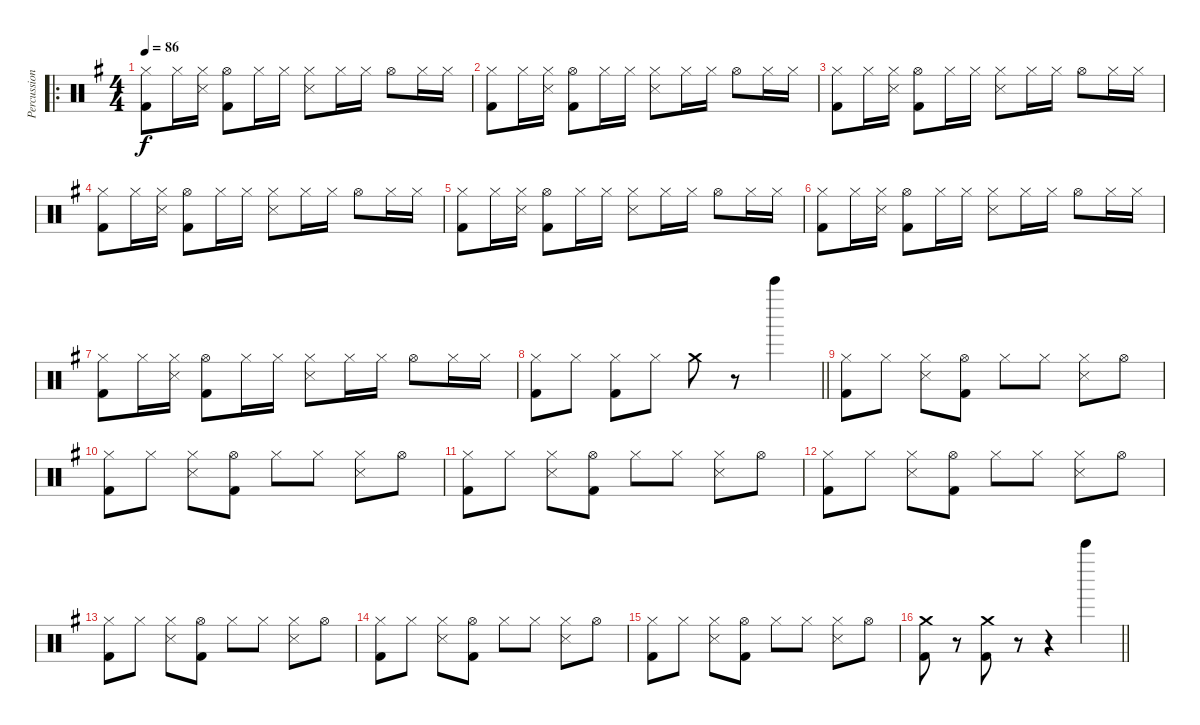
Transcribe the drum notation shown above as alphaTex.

\track ("Percussion" "Percussion") {instrument percussion}
\staff {score}
\articulation defaults
\ro
\ts (4 4)
\tempo 86
\clef neutral
\ks g
("Hi-Hat (closed)" "Kick (hit) 2").8{dy f} "Hi-Hat (closed)".16 ("Hi-Hat (closed)" "Snare (side stick) 3").16 ("Hi-Hat (open)" "Kick (hit) 2").8 "Hi-Hat (closed)".16 "Hi-Hat (closed)".16 ("Hi-Hat (closed)" "Snare (side stick) 3").8 "Hi-Hat (closed)".16 "Hi-Hat (closed)".16 "Hi-Hat (open)".8 "Hi-Hat (closed)".16 "Hi-Hat (closed)".16 |
("Hi-Hat (closed)" "Kick (hit) 2").8 "Hi-Hat (closed)".16 ("Hi-Hat (closed)" "Snare (side stick) 3").16 ("Hi-Hat (open)" "Kick (hit) 2").8 "Hi-Hat (closed)".16 "Hi-Hat (closed)".16 ("Hi-Hat (closed)" "Snare (side stick) 3").8 "Hi-Hat (closed)".16 "Hi-Hat (closed)".16 "Hi-Hat (open)".8 "Hi-Hat (closed)".16 "Hi-Hat (closed)".16 |
("Hi-Hat (closed)" "Kick (hit) 2").8 "Hi-Hat (closed)".16 ("Hi-Hat (closed)" "Snare (side stick) 3").16 ("Hi-Hat (open)" "Kick (hit) 2").8 "Hi-Hat (closed)".16 "Hi-Hat (closed)".16 ("Hi-Hat (closed)" "Snare (side stick) 3").8 "Hi-Hat (closed)".16 "Hi-Hat (closed)".16 "Hi-Hat (open)".8 "Hi-Hat (closed)".16 "Hi-Hat (closed)".16 |
("Hi-Hat (closed)" "Kick (hit) 2").8 "Hi-Hat (closed)".16 ("Hi-Hat (closed)" "Snare (side stick) 3").16 ("Hi-Hat (open)" "Kick (hit) 2").8 "Hi-Hat (closed)".16 "Hi-Hat (closed)".16 ("Hi-Hat (closed)" "Snare (side stick) 3").8 "Hi-Hat (closed)".16 "Hi-Hat (closed)".16 "Hi-Hat (open)".8 "Hi-Hat (closed)".16 "Hi-Hat (closed)".16 |
("Hi-Hat (closed)" "Kick (hit) 2").8 "Hi-Hat (closed)".16 ("Hi-Hat (closed)" "Snare (side stick) 3").16 ("Hi-Hat (open)" "Kick (hit) 2").8 "Hi-Hat (closed)".16 "Hi-Hat (closed)".16 ("Hi-Hat (closed)" "Snare (side stick) 3").8 "Hi-Hat (closed)".16 "Hi-Hat (closed)".16 "Hi-Hat (open)".8 "Hi-Hat (closed)".16 "Hi-Hat (closed)".16 |
("Hi-Hat (closed)" "Kick (hit) 2").8 "Hi-Hat (closed)".16 ("Hi-Hat (closed)" "Snare (side stick) 3").16 ("Hi-Hat (open)" "Kick (hit) 2").8 "Hi-Hat (closed)".16 "Hi-Hat (closed)".16 ("Hi-Hat (closed)" "Snare (side stick) 3").8 "Hi-Hat (closed)".16 "Hi-Hat (closed)".16 "Hi-Hat (open)".8 "Hi-Hat (closed)".16 "Hi-Hat (closed)".16 |
("Hi-Hat (closed)" "Kick (hit) 2").8 "Hi-Hat (closed)".16 ("Hi-Hat (closed)" "Snare (side stick) 3").16 ("Hi-Hat (open)" "Kick (hit) 2").8 "Hi-Hat (closed)".16 "Hi-Hat (closed)".16 ("Hi-Hat (closed)" "Snare (side stick) 3").8 "Hi-Hat (closed)".16 "Hi-Hat (closed)".16 "Hi-Hat (open)".8 "Hi-Hat (closed)".16 "Hi-Hat (closed)".16 |
\barLineRight lightlight
("Hi-Hat (closed)" "Kick (hit) 2").8 "Hi-Hat (closed)".8 ("Hi-Hat (closed)" "Kick (hit) 2").8 "Hi-Hat (closed)".8 "Crash medium (hit)".8 r.8 "Bell Tree (hit)".4 |
("Hi-Hat (closed)" "Kick (hit) 2").8 "Hi-Hat (closed)".8 ("Hi-Hat (closed)" "Snare (side stick) 3").8 ("Hi-Hat (open)" "Kick (hit) 2").8 "Hi-Hat (closed)".8 "Hi-Hat (closed)".8 ("Hi-Hat (closed)" "Snare (side stick) 3").8 "Hi-Hat (open)".8 |
("Hi-Hat (closed)" "Kick (hit) 2").8 "Hi-Hat (closed)".8 ("Hi-Hat (closed)" "Snare (side stick) 3").8 ("Hi-Hat (open)" "Kick (hit) 2").8 "Hi-Hat (closed)".8 "Hi-Hat (closed)".8 ("Hi-Hat (closed)" "Snare (side stick) 3").8 "Hi-Hat (open)".8 |
("Hi-Hat (closed)" "Kick (hit) 2").8 "Hi-Hat (closed)".8 ("Hi-Hat (closed)" "Snare (side stick) 3").8 ("Hi-Hat (open)" "Kick (hit) 2").8 "Hi-Hat (closed)".8 "Hi-Hat (closed)".8 ("Hi-Hat (closed)" "Snare (side stick) 3").8 "Hi-Hat (open)".8 |
("Hi-Hat (closed)" "Kick (hit) 2").8 "Hi-Hat (closed)".8 ("Hi-Hat (closed)" "Snare (side stick) 3").8 ("Hi-Hat (open)" "Kick (hit) 2").8 "Hi-Hat (closed)".8 "Hi-Hat (closed)".8 ("Hi-Hat (closed)" "Snare (side stick) 3").8 "Hi-Hat (open)".8 |
("Hi-Hat (closed)" "Kick (hit) 2").8 "Hi-Hat (closed)".8 ("Hi-Hat (closed)" "Snare (side stick) 3").8 ("Hi-Hat (open)" "Kick (hit) 2").8 "Hi-Hat (closed)".8 "Hi-Hat (closed)".8 ("Hi-Hat (closed)" "Snare (side stick) 3").8 "Hi-Hat (open)".8 |
("Hi-Hat (closed)" "Kick (hit) 2").8 "Hi-Hat (closed)".8 ("Hi-Hat (closed)" "Snare (side stick) 3").8 ("Hi-Hat (open)" "Kick (hit) 2").8 "Hi-Hat (closed)".8 "Hi-Hat (closed)".8 ("Hi-Hat (closed)" "Snare (side stick) 3").8 "Hi-Hat (open)".8 |
("Hi-Hat (closed)" "Kick (hit) 2").8 "Hi-Hat (closed)".8 ("Hi-Hat (closed)" "Snare (side stick) 3").8 ("Hi-Hat (open)" "Kick (hit) 2").8 "Hi-Hat (closed)".8 "Hi-Hat (closed)".8 ("Hi-Hat (closed)" "Snare (side stick) 3").8 "Hi-Hat (open)".8 |
\barLineRight lightlight
("Crash medium (hit)" "Kick (hit) 2").8 r.8 ("Crash medium (hit)" "Kick (hit) 2").8 r.8 r.4 "Bell Tree (hit)".4
